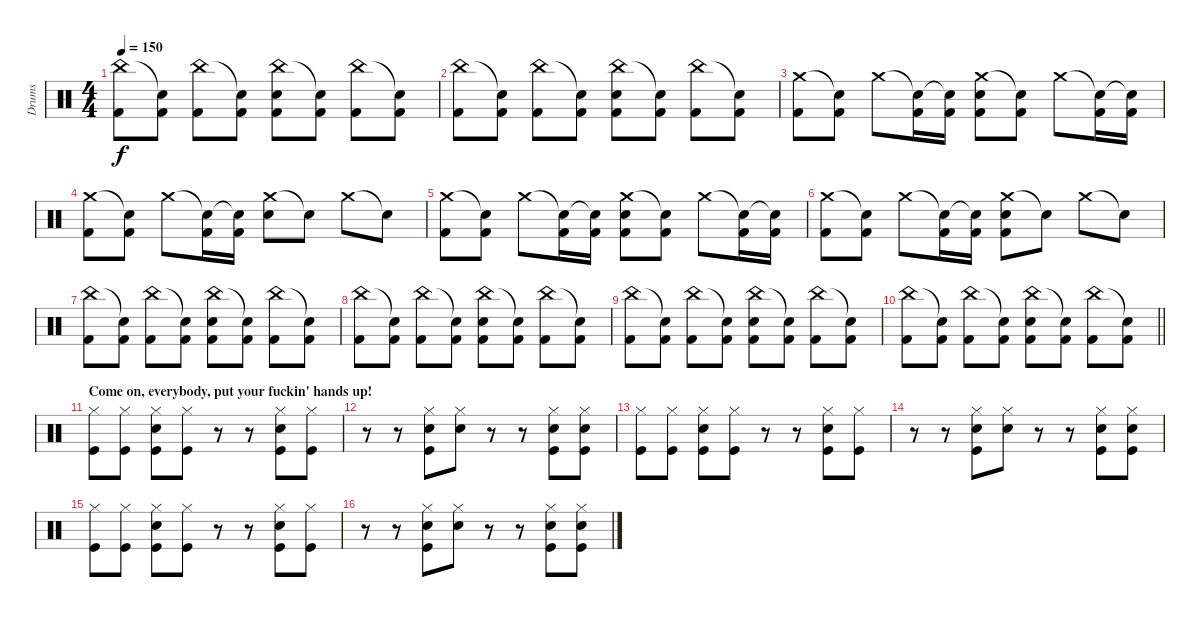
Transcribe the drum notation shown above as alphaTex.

\track ("Drums" "Drums") {instrument percussion}
\staff {score}
\articulation defaults
\ts (4 4)
\tempo 150
\clef neutral
\ks c
("China (hit)" "Kick (hit) 2").8{dy f} ("Snare (hit)"{t} "Kick (hit) 2").8 ("China (hit)" "Kick (hit) 2").8 ("Snare (hit)"{t} "Kick (hit) 2").8 ("China (hit)" "Electric Snare (hit)" "Kick (hit) 2").8 ("Snare (hit)"{t} "Kick (hit) 2").8 ("China (hit)" "Kick (hit) 2").8 ("Snare (hit)"{t} "Kick (hit) 2").8 |
("China (hit)" "Kick (hit) 2").8 ("Snare (hit)"{t} "Kick (hit) 2").8 ("China (hit)" "Kick (hit) 2").8 ("Snare (hit)"{t} "Kick (hit) 2").8 ("China (hit)" "Electric Snare (hit)" "Kick (hit) 2").8 ("Snare (hit)"{t} "Kick (hit) 2").8 ("China (hit)" "Kick (hit) 2").8 ("Snare (hit)"{t} "Kick (hit) 2").8 |
("Crash medium (hit)" "Kick (hit) 2").8 ("Snare (hit)"{t} "Kick (hit) 2").8 "Crash medium (hit)".8 ("Snare (hit)"{t} "Kick (hit) 2").16 ("Snare (hit)"{t} "Kick (hit) 2").16 ("Crash medium (hit)" "Electric Snare (hit)" "Kick (hit) 2").8 ("Snare (hit)"{t} "Kick (hit) 2").8 "Crash medium (hit)".8 ("Snare (hit)"{t} "Kick (hit) 2").16 ("Snare (hit)"{t} "Kick (hit) 2").16 |
("Crash medium (hit)" "Kick (hit) 2").8 ("Snare (hit)"{t} "Kick (hit) 2").8 "Crash medium (hit)".8 ("Snare (hit)"{t} "Kick (hit) 2").16 ("Snare (hit)"{t} "Kick (hit) 2").16 ("Crash medium (hit)" "Electric Snare (hit)").8 "Snare (hit)"{t}.8 "Crash medium (hit)".8 "Snare (hit)"{t}.8 |
("Crash medium (hit)" "Kick (hit) 2").8 ("Snare (hit)"{t} "Kick (hit) 2").8 "Crash medium (hit)".8 ("Snare (hit)"{t} "Kick (hit) 2").16 ("Snare (hit)"{t} "Kick (hit) 2").16 ("Crash medium (hit)" "Electric Snare (hit)" "Kick (hit) 2").8 ("Snare (hit)"{t} "Kick (hit) 2").8 "Crash medium (hit)".8 ("Snare (hit)"{t} "Kick (hit) 2").16 ("Snare (hit)"{t} "Kick (hit) 2").16 |
("Crash medium (hit)" "Kick (hit) 2").8 ("Snare (hit)"{t} "Kick (hit) 2").8 "Crash medium (hit)".8 ("Snare (hit)"{t} "Kick (hit) 2").16 ("Snare (hit)"{t} "Kick (hit) 2").16 ("Crash medium (hit)" "Electric Snare (hit)" "Kick (hit) 2").8 "Snare (hit)"{t}.8 "Crash medium (hit)".8 "Snare (hit)"{t}.8 |
("China (hit)" "Kick (hit) 2").8 ("Snare (hit)"{t} "Kick (hit) 2").8 ("China (hit)" "Kick (hit) 2").8 ("Snare (hit)"{t} "Kick (hit) 2").8 ("China (hit)" "Electric Snare (hit)" "Kick (hit) 2").8 ("Snare (hit)"{t} "Kick (hit) 2").8 ("China (hit)" "Kick (hit) 2").8 ("Snare (hit)"{t} "Kick (hit) 2").8 |
("China (hit)" "Kick (hit) 2").8 ("Snare (hit)"{t} "Kick (hit) 2").8 ("China (hit)" "Kick (hit) 2").8 ("Snare (hit)"{t} "Kick (hit) 2").8 ("China (hit)" "Electric Snare (hit)" "Kick (hit) 2").8 ("Snare (hit)"{t} "Kick (hit) 2").8 ("China (hit)" "Kick (hit) 2").8 ("Snare (hit)"{t} "Kick (hit) 2").8 |
("China (hit)" "Kick (hit) 2").8 ("Snare (hit)"{t} "Kick (hit) 2").8 ("China (hit)" "Kick (hit) 2").8 ("Snare (hit)"{t} "Kick (hit) 2").8 ("China (hit)" "Electric Snare (hit)" "Kick (hit) 2").8 ("Snare (hit)"{t} "Kick (hit) 2").8 ("China (hit)" "Kick (hit) 2").8 ("Snare (hit)"{t} "Kick (hit) 2").8 |
\barLineRight lightlight
("China (hit)" "Kick (hit) 2").8 ("Snare (hit)"{t} "Kick (hit) 2").8 ("China (hit)" "Kick (hit) 2").8 ("Snare (hit)"{t} "Kick (hit) 2").8 ("China (hit)" "Electric Snare (hit)" "Kick (hit) 2").8 ("Snare (hit)"{t} "Kick (hit) 2").8 ("China (hit)" "Kick (hit) 2").8 ("Snare (hit)"{t} "Kick (hit) 2").8 |
\section ("" "Come on, everybody, put your fuckin' hands up!")
("Hi-Hat (closed)" "Kick (hit)").8 ("Hi-Hat (closed)" "Kick (hit)").8 ("Hi-Hat (closed)" "Hand Clap (hit)" "Kick (hit)").8 ("Hi-Hat (closed)" "Kick (hit)").8 r.8 r.8 ("Hi-Hat (closed)" "Hand Clap (hit)" "Kick (hit)").8 ("Hi-Hat (closed)" "Kick (hit)").8 |
r.8 r.8 ("Hi-Hat (closed)" "Hand Clap (hit)" "Kick (hit)").8 ("Hi-Hat (closed)" "Hand Clap (hit)").8 r.8 r.8 ("Hi-Hat (closed)" "Hand Clap (hit)" "Kick (hit)").8 ("Hi-Hat (closed)" "Hand Clap (hit)" "Kick (hit)").8 |
("Hi-Hat (closed)" "Kick (hit)").8 ("Hi-Hat (closed)" "Kick (hit)").8 ("Hi-Hat (closed)" "Hand Clap (hit)" "Kick (hit)").8 ("Hi-Hat (closed)" "Kick (hit)").8 r.8 r.8 ("Hi-Hat (closed)" "Hand Clap (hit)" "Kick (hit)").8 ("Hi-Hat (closed)" "Kick (hit)").8 |
r.8 r.8 ("Hi-Hat (closed)" "Hand Clap (hit)" "Kick (hit)").8 ("Hi-Hat (closed)" "Hand Clap (hit)").8 r.8 r.8 ("Hi-Hat (closed)" "Hand Clap (hit)" "Kick (hit)").8 ("Hi-Hat (closed)" "Hand Clap (hit)" "Kick (hit)").8 |
("Hi-Hat (closed)" "Kick (hit)").8 ("Hi-Hat (closed)" "Kick (hit)").8 ("Hi-Hat (closed)" "Hand Clap (hit)" "Kick (hit)").8 ("Hi-Hat (closed)" "Kick (hit)").8 r.8 r.8 ("Hi-Hat (closed)" "Hand Clap (hit)" "Kick (hit)").8 ("Hi-Hat (closed)" "Kick (hit)").8 |
r.8 r.8 ("Hi-Hat (closed)" "Hand Clap (hit)" "Kick (hit)").8 ("Hi-Hat (closed)" "Hand Clap (hit)").8 r.8 r.8 ("Hi-Hat (closed)" "Hand Clap (hit)" "Kick (hit)").8 ("Hi-Hat (closed)" "Hand Clap (hit)" "Kick (hit)").8
